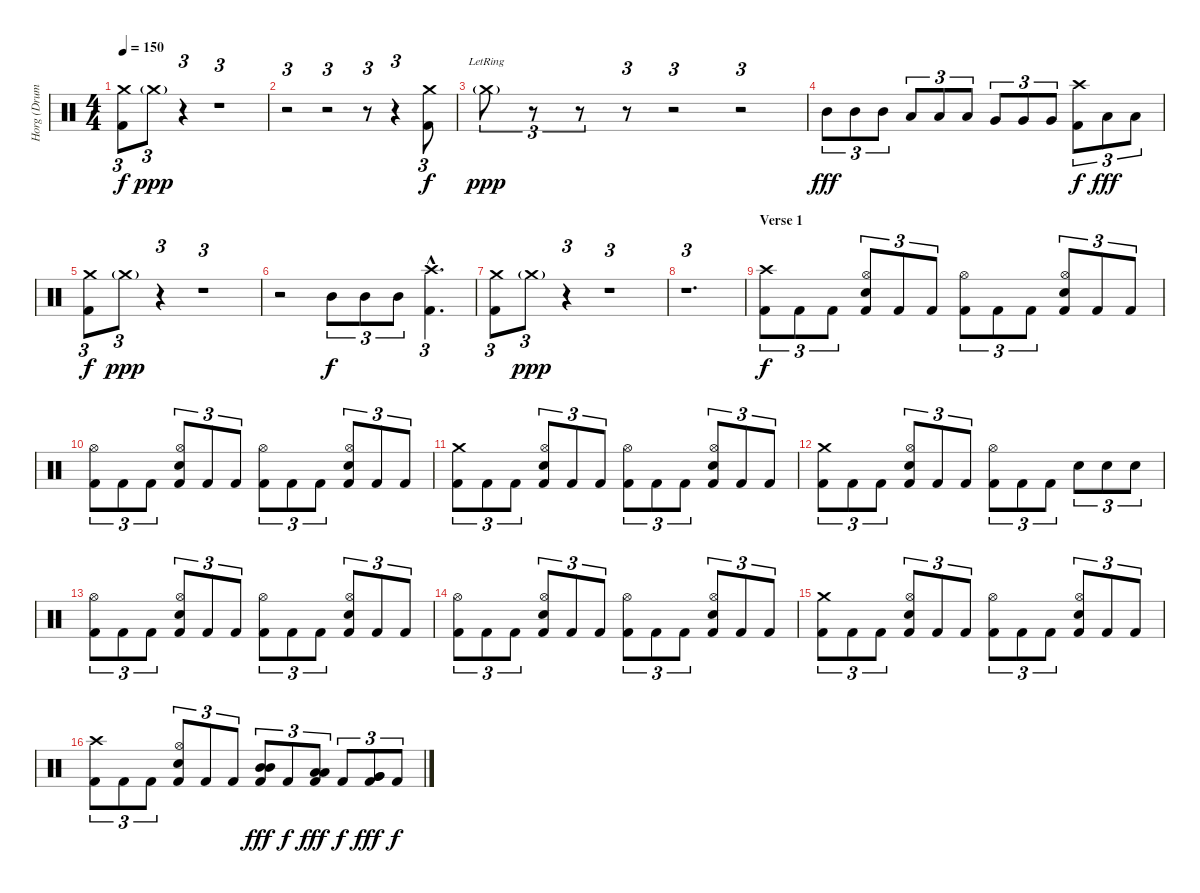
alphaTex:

\track ("Horg (Drums)" "Horg (Drum") {instrument percussion}
\staff {score}
\articulation defaults
\ts (4 4)
\tempo 150
\clef neutral
\ks c
("Crash medium (hit)" "Kick (hit) 2").8{tu (3 2) dy f} "Crash medium (hit)"{g}.8{tu (3 2) dy ppp} r.4{tu (3 2)} r.1{tu (3 2)} |
r.2{tu (3 2)} r.2{tu (3 2)} r.8{tu (3 2)} r.4{tu (3 2)} ("Crash medium (hit)" "Kick (hit) 2").8{tu (3 2) dy f} |
"Crash medium (hit)"{g lr}.8{tu (3 2) dy ppp} r.8{tu (3 2)} r.8{tu (3 2)} r.8{tu (3 2)} r.2{tu (3 2)} r.2{tu (3 2)} |
"Mid Tom (hit)".8{tu (3 2) dy fff} "Mid Tom (hit)".8{tu (3 2)} "Mid Tom (hit)".8{tu (3 2)} "Low Tom (hit)".8{tu (3 2)} "Low Tom (hit)".8{tu (3 2)} "Low Tom (hit)".8{tu (3 2)} "Very Low Tom (hit)".8{tu (3 2)} "Very Low Tom (hit)".8{tu (3 2)} "Very Low Tom (hit)".8{tu (3 2)} ("Crash high (hit)" "Kick (hit) 2").8{tu (3 2) dy f} "Low Floor Tom (hit)".8{tu (3 2) dy fff} "Low Floor Tom (hit)".8{tu (3 2)} |
("Crash medium (hit)" "Kick (hit) 2").8{tu (3 2) dy f} "Crash medium (hit)"{g}.8{tu (3 2) dy ppp volume 0} r.4{tu (3 2)} r.1{tu (3 2)} |
r.2{volume 15} "Mid Tom (hit)".8{tu (3 2) dy f} "Mid Tom (hit)".8{tu (3 2)} "Mid Tom (hit)".8{tu (3 2)} ("Crash high (hit)"{hac} "Kick (hit) 2"{hac}).4{d tu (3 2)} |
("Crash medium (hit)" "Kick (hit) 2").8{tu (3 2)} "Crash medium (hit)"{g}.8{tu (3 2) dy ppp volume 0} r.4{tu (3 2)} r.1{tu (3 2)} |
r.1{d tu (3 2)} |
\section ("" "Verse 1")
("Crash high (hit)" "Kick (hit) 2").8{tu (3 2) dy f volume 15} "Kick (hit) 2".8{tu (3 2)} "Kick (hit) 2".8{tu (3 2)} ("Hi-Hat (open)" "Electric Snare (hit)" "Kick (hit) 2").8{tu (3 2)} "Kick (hit) 2".8{tu (3 2)} "Kick (hit) 2".8{tu (3 2)} ("Hi-Hat (open)" "Kick (hit) 2").8{tu (3 2)} "Kick (hit) 2".8{tu (3 2)} "Kick (hit) 2".8{tu (3 2)} ("Hi-Hat (open)" "Electric Snare (hit)" "Kick (hit) 2").8{tu (3 2)} "Kick (hit) 2".8{tu (3 2)} "Kick (hit) 2".8{tu (3 2)} |
("Hi-Hat (open)" "Kick (hit) 2").8{tu (3 2)} "Kick (hit) 2".8{tu (3 2)} "Kick (hit) 2".8{tu (3 2)} ("Hi-Hat (open)" "Electric Snare (hit)" "Kick (hit) 2").8{tu (3 2)} "Kick (hit) 2".8{tu (3 2)} "Kick (hit) 2".8{tu (3 2)} ("Hi-Hat (open)" "Kick (hit) 2").8{tu (3 2)} "Kick (hit) 2".8{tu (3 2)} "Kick (hit) 2".8{tu (3 2)} ("Hi-Hat (open)" "Electric Snare (hit)" "Kick (hit) 2").8{tu (3 2)} "Kick (hit) 2".8{tu (3 2)} "Kick (hit) 2".8{tu (3 2)} |
("Crash medium (hit)" "Kick (hit) 2").8{tu (3 2)} "Kick (hit) 2".8{tu (3 2)} "Kick (hit) 2".8{tu (3 2)} ("Hi-Hat (open)" "Electric Snare (hit)" "Kick (hit) 2").8{tu (3 2)} "Kick (hit) 2".8{tu (3 2)} "Kick (hit) 2".8{tu (3 2)} ("Hi-Hat (open)" "Kick (hit) 2").8{tu (3 2)} "Kick (hit) 2".8{tu (3 2)} "Kick (hit) 2".8{tu (3 2)} ("Hi-Hat (open)" "Electric Snare (hit)" "Kick (hit) 2").8{tu (3 2)} "Kick (hit) 2".8{tu (3 2)} "Kick (hit) 2".8{tu (3 2)} |
("Crash medium (hit)" "Kick (hit) 2").8{tu (3 2)} "Kick (hit) 2".8{tu (3 2)} "Kick (hit) 2".8{tu (3 2)} ("Hi-Hat (open)" "Electric Snare (hit)" "Kick (hit) 2").8{tu (3 2)} "Kick (hit) 2".8{tu (3 2)} "Kick (hit) 2".8{tu (3 2)} ("Hi-Hat (open)" "Kick (hit) 2").8{tu (3 2)} "Kick (hit) 2".8{tu (3 2)} "Kick (hit) 2".8{tu (3 2)} "Electric Snare (hit)".8{tu (3 2)} "Electric Snare (hit)".8{tu (3 2)} "Electric Snare (hit)".8{tu (3 2)} |
("Hi-Hat (open)" "Kick (hit) 2").8{tu (3 2)} "Kick (hit) 2".8{tu (3 2)} "Kick (hit) 2".8{tu (3 2)} ("Hi-Hat (open)" "Electric Snare (hit)" "Kick (hit) 2").8{tu (3 2)} "Kick (hit) 2".8{tu (3 2)} "Kick (hit) 2".8{tu (3 2)} ("Hi-Hat (open)" "Kick (hit) 2").8{tu (3 2)} "Kick (hit) 2".8{tu (3 2)} "Kick (hit) 2".8{tu (3 2)} ("Hi-Hat (open)" "Electric Snare (hit)" "Kick (hit) 2").8{tu (3 2)} "Kick (hit) 2".8{tu (3 2)} "Kick (hit) 2".8{tu (3 2)} |
("Hi-Hat (open)" "Kick (hit) 2").8{tu (3 2)} "Kick (hit) 2".8{tu (3 2)} "Kick (hit) 2".8{tu (3 2)} ("Hi-Hat (open)" "Electric Snare (hit)" "Kick (hit) 2").8{tu (3 2)} "Kick (hit) 2".8{tu (3 2)} "Kick (hit) 2".8{tu (3 2)} ("Hi-Hat (open)" "Kick (hit) 2").8{tu (3 2)} "Kick (hit) 2".8{tu (3 2)} "Kick (hit) 2".8{tu (3 2)} ("Hi-Hat (open)" "Electric Snare (hit)" "Kick (hit) 2").8{tu (3 2)} "Kick (hit) 2".8{tu (3 2)} "Kick (hit) 2".8{tu (3 2)} |
("Crash medium (hit)" "Kick (hit) 2").8{tu (3 2)} "Kick (hit) 2".8{tu (3 2)} "Kick (hit) 2".8{tu (3 2)} ("Hi-Hat (open)" "Electric Snare (hit)" "Kick (hit) 2").8{tu (3 2)} "Kick (hit) 2".8{tu (3 2)} "Kick (hit) 2".8{tu (3 2)} ("Hi-Hat (open)" "Kick (hit) 2").8{tu (3 2)} "Kick (hit) 2".8{tu (3 2)} "Kick (hit) 2".8{tu (3 2)} ("Hi-Hat (open)" "Electric Snare (hit)" "Kick (hit) 2").8{tu (3 2)} "Kick (hit) 2".8{tu (3 2)} "Kick (hit) 2".8{tu (3 2)} |
("Crash high (hit)" "Kick (hit) 2").8{tu (3 2)} "Kick (hit) 2".8{tu (3 2)} "Kick (hit) 2".8{tu (3 2)} ("Hi-Hat (open)" "Electric Snare (hit)" "Kick (hit) 2").8{tu (3 2)} "Kick (hit) 2".8{tu (3 2)} "Kick (hit) 2".8{tu (3 2)} ("Mid Tom (hit)" "Mid Tom (hit)" "Kick (hit) 2").8{tu (3 2) dy fff} "Kick (hit) 2".8{tu (3 2) dy f} ("Low Tom (hit)" "Low Tom (hit)" "Kick (hit) 2").8{tu (3 2) dy fff} "Kick (hit) 2".8{tu (3 2) dy f} ("Very Low Tom (hit)" "Very Low Tom (hit)" "Kick (hit) 2").8{tu (3 2) dy fff} "Kick (hit) 2".8{tu (3 2) dy f}
